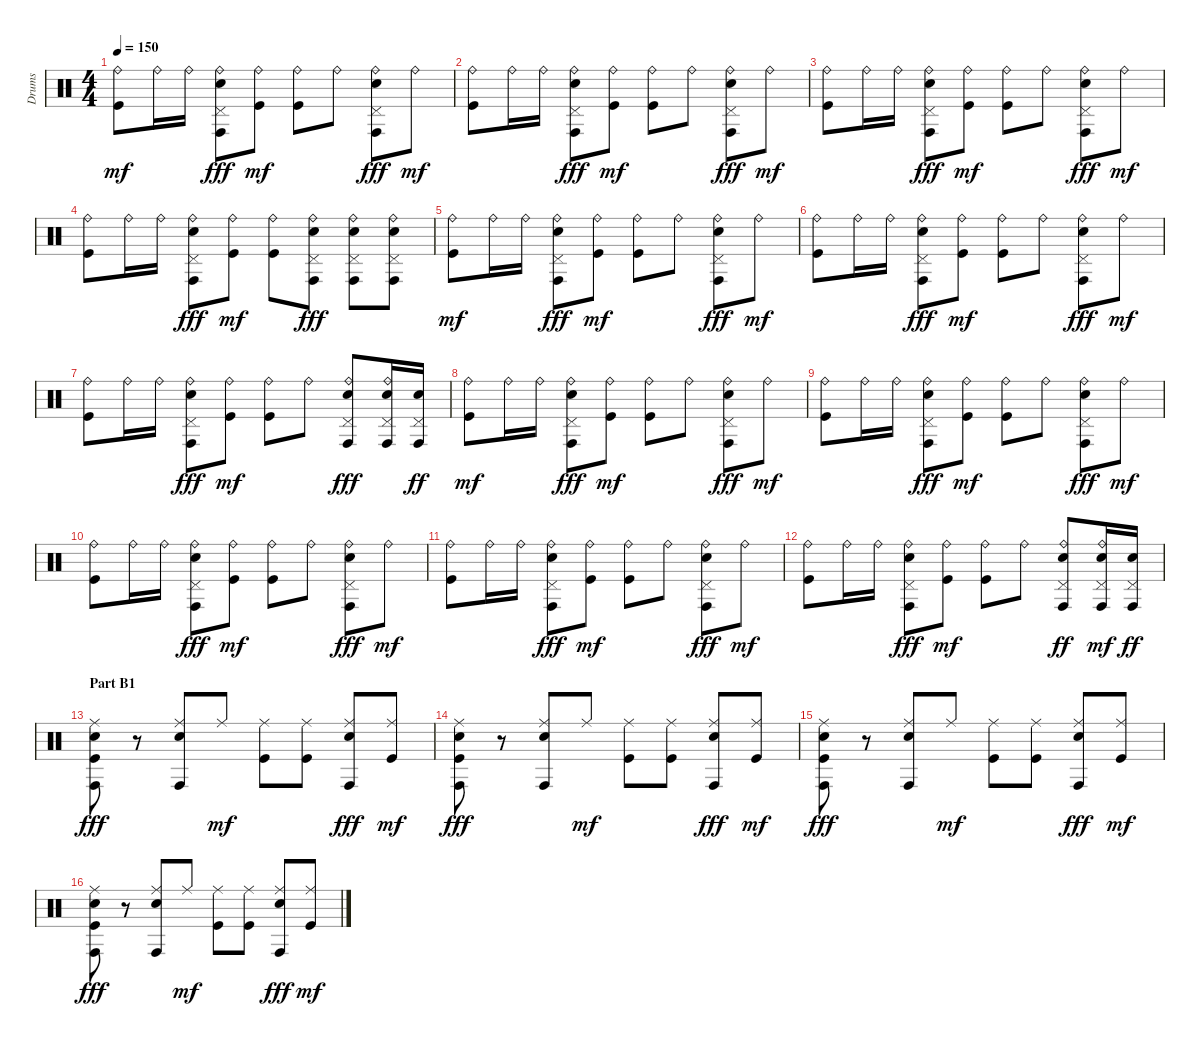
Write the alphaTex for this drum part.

\track ("Drums" "Drums") {instrument percussion}
\staff {score}
\articulation defaults
\ts (4 4)
\tempo 150
\clef neutral
\ks c
("Ride (bell)" "Kick (hit)").8{dy mf} "Ride (bell)".16 "Ride (bell)".16 ("Ride (bell)" "Pedal Hi-Hat (hit)" "Conga high (hit)" "Electric Snare (hit)").8{dy fff} ("Ride (bell)" "Kick (hit)").8{dy mf} ("Ride (bell)" "Kick (hit)").8 "Ride (bell)".8 ("Ride (bell)" "Pedal Hi-Hat (hit)" "Conga high (hit)" "Electric Snare (hit)").8{dy fff} "Ride (bell)".8{dy mf} |
("Ride (bell)" "Kick (hit)").8 "Ride (bell)".16 "Ride (bell)".16 ("Ride (bell)" "Pedal Hi-Hat (hit)" "Conga high (hit)" "Electric Snare (hit)").8{dy fff} ("Ride (bell)" "Kick (hit)").8{dy mf} ("Ride (bell)" "Kick (hit)").8 "Ride (bell)".8 ("Ride (bell)" "Pedal Hi-Hat (hit)" "Conga high (hit)" "Electric Snare (hit)").8{dy fff} "Ride (bell)".8{dy mf} |
("Ride (bell)" "Kick (hit)").8 "Ride (bell)".16 "Ride (bell)".16 ("Ride (bell)" "Pedal Hi-Hat (hit)" "Conga high (hit)" "Electric Snare (hit)").8{dy fff} ("Ride (bell)" "Kick (hit)").8{dy mf} ("Ride (bell)" "Kick (hit)").8 "Ride (bell)".8 ("Ride (bell)" "Pedal Hi-Hat (hit)" "Conga high (hit)" "Electric Snare (hit)").8{dy fff} "Ride (bell)".8{dy mf} |
("Ride (bell)" "Kick (hit)").8 "Ride (bell)".16 "Ride (bell)".16 ("Ride (bell)" "Pedal Hi-Hat (hit)" "Conga high (hit)" "Electric Snare (hit)").8{dy fff} ("Ride (bell)" "Kick (hit)").8{dy mf} ("Ride (bell)" "Kick (hit)").8 ("Ride (bell)" "Pedal Hi-Hat (hit)" "Conga high (hit)" "Electric Snare (hit)").8{dy fff} ("Ride (bell)" "Pedal Hi-Hat (hit)" "Conga high (hit)" "Electric Snare (hit)").8 ("Ride (bell)" "Pedal Hi-Hat (hit)" "Conga high (hit)" "Electric Snare (hit)").8 |
("Ride (bell)" "Kick (hit)").8{dy mf} "Ride (bell)".16 "Ride (bell)".16 ("Ride (bell)" "Pedal Hi-Hat (hit)" "Conga high (hit)" "Electric Snare (hit)").8{dy fff} ("Ride (bell)" "Kick (hit)").8{dy mf} ("Ride (bell)" "Kick (hit)").8 "Ride (bell)".8 ("Ride (bell)" "Pedal Hi-Hat (hit)" "Conga high (hit)" "Electric Snare (hit)").8{dy fff} "Ride (bell)".8{dy mf} |
("Ride (bell)" "Kick (hit)").8 "Ride (bell)".16 "Ride (bell)".16 ("Ride (bell)" "Pedal Hi-Hat (hit)" "Conga high (hit)" "Electric Snare (hit)").8{dy fff} ("Ride (bell)" "Kick (hit)").8{dy mf} ("Ride (bell)" "Kick (hit)").8 "Ride (bell)".8 ("Ride (bell)" "Pedal Hi-Hat (hit)" "Conga high (hit)" "Electric Snare (hit)").8{dy fff} "Ride (bell)".8{dy mf} |
("Ride (bell)" "Kick (hit)").8 "Ride (bell)".16 "Ride (bell)".16 ("Ride (bell)" "Pedal Hi-Hat (hit)" "Conga high (hit)" "Electric Snare (hit)").8{dy fff} ("Ride (bell)" "Kick (hit)").8{dy mf} ("Ride (bell)" "Kick (hit)").8 "Ride (bell)".8 ("Ride (bell)" "Pedal Hi-Hat (hit)" "Conga high (hit)" "Electric Snare (hit)").8{dy fff} ("Ride (bell)" "Pedal Hi-Hat (hit)" "Conga high (hit)" "Electric Snare (hit)").16 ("Pedal Hi-Hat (hit)" "Conga high (hit)" "Electric Snare (hit)").16{dy ff} |
("Ride (bell)" "Kick (hit)").8{dy mf} "Ride (bell)".16 "Ride (bell)".16 ("Ride (bell)" "Pedal Hi-Hat (hit)" "Conga high (hit)" "Electric Snare (hit)").8{dy fff} ("Ride (bell)" "Kick (hit)").8{dy mf} ("Ride (bell)" "Kick (hit)").8 "Ride (bell)".8 ("Ride (bell)" "Pedal Hi-Hat (hit)" "Conga high (hit)" "Electric Snare (hit)").8{dy fff} "Ride (bell)".8{dy mf} |
("Ride (bell)" "Kick (hit)").8 "Ride (bell)".16 "Ride (bell)".16 ("Ride (bell)" "Pedal Hi-Hat (hit)" "Conga high (hit)" "Electric Snare (hit)").8{dy fff} ("Ride (bell)" "Kick (hit)").8{dy mf} ("Ride (bell)" "Kick (hit)").8 "Ride (bell)".8 ("Ride (bell)" "Pedal Hi-Hat (hit)" "Conga high (hit)" "Electric Snare (hit)").8{dy fff} "Ride (bell)".8{dy mf} |
("Ride (bell)" "Kick (hit)").8 "Ride (bell)".16 "Ride (bell)".16 ("Ride (bell)" "Pedal Hi-Hat (hit)" "Conga high (hit)" "Electric Snare (hit)").8{dy fff} ("Ride (bell)" "Kick (hit)").8{dy mf} ("Ride (bell)" "Kick (hit)").8 "Ride (bell)".8 ("Ride (bell)" "Pedal Hi-Hat (hit)" "Conga high (hit)" "Electric Snare (hit)").8{dy fff} "Ride (bell)".8{dy mf} |
("Ride (bell)" "Kick (hit)").8 "Ride (bell)".16 "Ride (bell)".16 ("Ride (bell)" "Pedal Hi-Hat (hit)" "Conga high (hit)" "Electric Snare (hit)").8{dy fff} ("Ride (bell)" "Kick (hit)").8{dy mf} ("Ride (bell)" "Kick (hit)").8 "Ride (bell)".8 ("Ride (bell)" "Pedal Hi-Hat (hit)" "Conga high (hit)" "Electric Snare (hit)").8{dy fff} "Ride (bell)".8{dy mf} |
("Ride (bell)" "Kick (hit)").8 "Ride (bell)".16 "Ride (bell)".16 ("Ride (bell)" "Pedal Hi-Hat (hit)" "Conga high (hit)" "Electric Snare (hit)").8{dy fff} ("Ride (bell)" "Kick (hit)").8{dy mf} ("Ride (bell)" "Kick (hit)").8 "Ride (bell)".8 ("Ride (bell)" "Pedal Hi-Hat (hit)" "Conga high (hit)" "Electric Snare (hit)").8{dy ff} ("Ride (bell)" "Pedal Hi-Hat (hit)" "Conga high (hit)" "Electric Snare (hit)").16{dy mf} ("Pedal Hi-Hat (hit)" "Conga high (hit)" "Electric Snare (hit)").16{dy ff} |
\section ("" "Part B1")
("Ride (middle)" "Conga high (hit)" "Electric Snare (hit)" "Kick (hit)").8{dy fff} r.8 ("Ride (middle)" "Conga high (hit)" "Electric Snare (hit)").8 "Ride (middle)".8{dy mf} ("Ride (middle)" "Kick (hit)").8 ("Ride (middle)" "Kick (hit)").8 ("Ride (middle)" "Conga high (hit)" "Electric Snare (hit)").8{dy fff} ("Ride (middle)" "Kick (hit)").8{dy mf} |
("Ride (middle)" "Conga high (hit)" "Electric Snare (hit)" "Kick (hit)").8{dy fff} r.8 ("Ride (middle)" "Conga high (hit)" "Electric Snare (hit)").8 "Ride (middle)".8{dy mf} ("Ride (middle)" "Kick (hit)").8 ("Ride (middle)" "Kick (hit)").8 ("Ride (middle)" "Conga high (hit)" "Electric Snare (hit)").8{dy fff} ("Ride (middle)" "Kick (hit)").8{dy mf} |
("Ride (middle)" "Conga high (hit)" "Electric Snare (hit)" "Kick (hit)").8{dy fff} r.8 ("Ride (middle)" "Conga high (hit)" "Electric Snare (hit)").8 "Ride (middle)".8{dy mf} ("Ride (middle)" "Kick (hit)").8 ("Ride (middle)" "Kick (hit)").8 ("Ride (middle)" "Conga high (hit)" "Electric Snare (hit)").8{dy fff} ("Ride (middle)" "Kick (hit)").8{dy mf} |
("Ride (middle)" "Conga high (hit)" "Electric Snare (hit)" "Kick (hit)").8{dy fff} r.8 ("Ride (middle)" "Conga high (hit)" "Electric Snare (hit)").8 "Ride (middle)".8{dy mf} ("Ride (middle)" "Kick (hit)").8 ("Ride (middle)" "Kick (hit)").8 ("Ride (middle)" "Conga high (hit)" "Electric Snare (hit)").8{dy fff} ("Ride (middle)" "Kick (hit)").8{dy mf}
